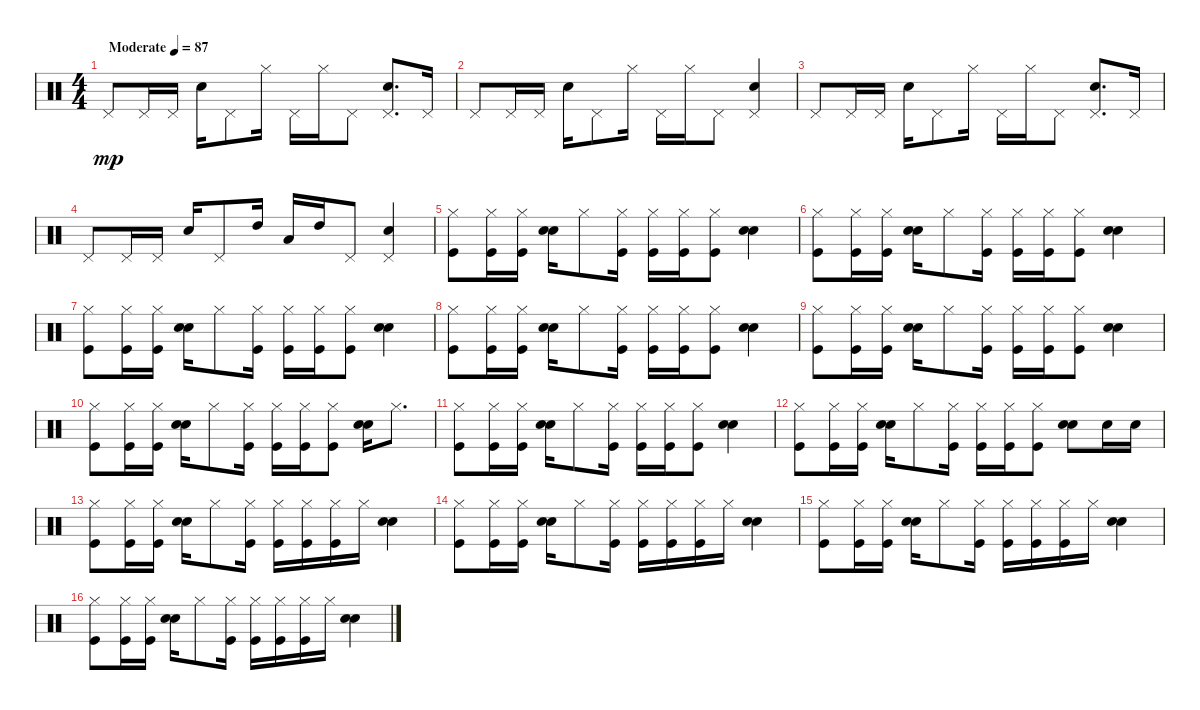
\track "" {instrument percussion}
\staff {score}
\articulation defaults
\ts (4 4)
\tempo (87 "Moderate")
\clef neutral
\ks c "Pedal Hi-Hat (hit)".8{dy mp} "Pedal Hi-Hat (hit)".16 "Pedal Hi-Hat (hit)".16 "Electric Snare (hit)".16 "Pedal Hi-Hat (hit)".8 "Hi-Hat (closed)".16 "Pedal Hi-Hat (hit)".16 "Hi-Hat (closed)".16 "Pedal Hi-Hat (hit)".8
("Pedal Hi-Hat (hit)" "Electric Snare (hit)").8{d} "Pedal Hi-Hat (hit)".16 |
"Pedal Hi-Hat (hit)".8 "Pedal Hi-Hat (hit)".16 "Pedal Hi-Hat (hit)".16 "Electric Snare (hit)".16 "Pedal Hi-Hat (hit)".8 "Hi-Hat (closed)".16 "Pedal Hi-Hat (hit)".16 "Hi-Hat (closed)".16 "Pedal Hi-Hat (hit)".8 ("Pedal Hi-Hat (hit)" "Electric Snare (hit)").4 |
"Pedal Hi-Hat (hit)".8 "Pedal Hi-Hat (hit)".16 "Pedal Hi-Hat (hit)".16 "Electric Snare (hit)".16 "Pedal Hi-Hat (hit)".8 "Hi-Hat (closed)".16 "Pedal Hi-Hat (hit)".16 "Hi-Hat (closed)".16 "Pedal Hi-Hat (hit)".8 ("Pedal Hi-Hat (hit)" "Electric Snare (hit)").8{d} "Pedal Hi-Hat (hit)".16 |
"Pedal Hi-Hat (hit)".8 "Pedal Hi-Hat (hit)".16 "Pedal Hi-Hat (hit)".16 "Electric Snare (hit)".16 "Pedal Hi-Hat (hit)".8 "High Tom (hit)".16 "Low Floor Tom (hit)".16 "High Tom (hit)".16 "Pedal Hi-Hat (hit)".8 ("Electric Snare (hit)" "Pedal Hi-Hat (hit)").4 |
("Kick (hit)" "Hi-Hat (closed)").8 ("Kick (hit)" "Hi-Hat (closed)").16 ("Kick (hit)" "Hi-Hat (closed)").16 ("Hand Clap (hit)" "Electric Snare (hit)").16 "Hi-Hat (closed)".8 ("Kick (hit)" "Hi-Hat (closed)").16 ("Kick (hit)" "Hi-Hat (closed)").16 ("Kick (hit)" "Hi-Hat (closed)").16 ("Kick (hit)" "Hi-Hat (closed)").8 ("Electric Snare (hit)" "Hand Clap (hit)").4 |
("Kick (hit)" "Hi-Hat (closed)").8 ("Kick (hit)" "Hi-Hat (closed)").16 ("Kick (hit)" "Hi-Hat (closed)").16 ("Hand Clap (hit)" "Electric Snare (hit)").16 "Hi-Hat (closed)".8 ("Kick (hit)" "Hi-Hat (closed)").16 ("Kick (hit)" "Hi-Hat (closed)").16 ("Kick (hit)" "Hi-Hat (closed)").16 ("Kick (hit)" "Hi-Hat (closed)").8 ("Electric Snare (hit)" "Hand Clap (hit)").4 |
("Kick (hit)" "Hi-Hat (closed)").8 ("Kick (hit)" "Hi-Hat (closed)").16 ("Kick (hit)" "Hi-Hat (closed)").16 ("Hand Clap (hit)" "Electric Snare (hit)").16 "Hi-Hat (closed)".8 ("Kick (hit)" "Hi-Hat (closed)").16 ("Kick (hit)" "Hi-Hat (closed)").16 ("Kick (hit)" "Hi-Hat (closed)").16 ("Kick (hit)" "Hi-Hat (closed)").8 ("Electric Snare (hit)" "Hand Clap (hit)").4 |
("Kick (hit)" "Hi-Hat (closed)").8 ("Kick (hit)" "Hi-Hat (closed)").16 ("Kick (hit)" "Hi-Hat (closed)").16 ("Hand Clap (hit)" "Electric Snare (hit)").16 "Hi-Hat (closed)".8 ("Kick (hit)" "Hi-Hat (closed)").16 ("Kick (hit)" "Hi-Hat (closed)").16 ("Kick (hit)" "Hi-Hat (closed)").16 ("Kick (hit)" "Hi-Hat (closed)").8 ("Electric Snare (hit)" "Hand Clap (hit)").4 |
("Kick (hit)" "Hi-Hat (closed)").8 ("Kick (hit)" "Hi-Hat (closed)").16 ("Kick (hit)" "Hi-Hat (closed)").16 ("Hand Clap (hit)" "Electric Snare (hit)").16 "Hi-Hat (closed)".8 ("Kick (hit)" "Hi-Hat (closed)").16 ("Kick (hit)" "Hi-Hat (closed)").16 ("Kick (hit)" "Hi-Hat (closed)").16 ("Kick (hit)" "Hi-Hat (closed)").8 ("Electric Snare (hit)" "Hand Clap (hit)").4 |
("Kick (hit)" "Hi-Hat (closed)").8 ("Kick (hit)" "Hi-Hat (closed)").16 ("Kick (hit)" "Hi-Hat (closed)").16 ("Hand Clap (hit)" "Electric Snare (hit)").16 "Hi-Hat (closed)".8 ("Kick (hit)" "Hi-Hat (closed)").16 ("Kick (hit)" "Hi-Hat (closed)").16 ("Kick (hit)" "Hi-Hat (closed)").16 ("Kick (hit)" "Hi-Hat (closed)").8 ("Hand Clap (hit)" "Electric Snare (hit)").16 "Hi-Hat (closed)".8{d} |
("Kick (hit)" "Hi-Hat (closed)").8 ("Kick (hit)" "Hi-Hat (closed)").16 ("Kick (hit)" "Hi-Hat (closed)").16 ("Hand Clap (hit)" "Electric Snare (hit)").16 "Hi-Hat (closed)".8 ("Kick (hit)" "Hi-Hat (closed)").16 ("Kick (hit)" "Hi-Hat (closed)").16 ("Kick (hit)" "Hi-Hat (closed)").16 ("Kick (hit)" "Hi-Hat (closed)").8 ("Electric Snare (hit)" "Hand Clap (hit)").4 |
("Kick (hit)" "Hi-Hat (closed)").8 ("Kick (hit)" "Hi-Hat (closed)").16 ("Kick (hit)" "Hi-Hat (closed)").16 ("Hand Clap (hit)" "Electric Snare (hit)").16 "Hi-Hat (closed)".8 ("Kick (hit)" "Hi-Hat (closed)").16 ("Kick (hit)" "Hi-Hat (closed)").16 ("Kick (hit)" "Hi-Hat (closed)").16 ("Kick (hit)" "Hi-Hat (closed)").8 ("Electric Snare (hit)" "Hand Clap (hit)").8 "Electric Snare (hit)".16 "Electric Snare (hit)".16 |
("Kick (hit)" "Hi-Hat (closed)").8 ("Kick (hit)" "Hi-Hat (closed)").16 ("Kick (hit)" "Hi-Hat (closed)").16 ("Hand Clap (hit)" "Electric Snare (hit)").16 "Hi-Hat (closed)".8 ("Kick (hit)" "Hi-Hat (closed)").16 ("Kick (hit)" "Hi-Hat (closed)").16 ("Kick (hit)" "Hi-Hat (closed)").16 ("Hi-Hat (closed)" "Kick (hit)").16 "Hi-Hat (closed)".16 ("Electric Snare (hit)" "Hand Clap (hit)").4 |
("Kick (hit)" "Hi-Hat (closed)").8 ("Kick (hit)" "Hi-Hat (closed)").16 ("Kick (hit)" "Hi-Hat (closed)").16 ("Hand Clap (hit)" "Electric Snare (hit)").16 "Hi-Hat (closed)".8 ("Kick (hit)" "Hi-Hat (closed)").16 ("Kick (hit)" "Hi-Hat (closed)").16 ("Kick (hit)" "Hi-Hat (closed)").16 ("Hi-Hat (closed)" "Kick (hit)").16 "Hi-Hat (closed)".16 ("Electric Snare (hit)" "Hand Clap (hit)").4 |
("Kick (hit)" "Hi-Hat (closed)").8 ("Kick (hit)" "Hi-Hat (closed)").16 ("Kick (hit)" "Hi-Hat (closed)").16 ("Hand Clap (hit)" "Electric Snare (hit)").16 "Hi-Hat (closed)".8 ("Kick (hit)" "Hi-Hat (closed)").16 ("Kick (hit)" "Hi-Hat (closed)").16 ("Kick (hit)" "Hi-Hat (closed)").16 ("Hi-Hat (closed)" "Kick (hit)").16 "Hi-Hat (closed)".16 ("Electric Snare (hit)" "Hand Clap (hit)").4 |
("Kick (hit)" "Hi-Hat (closed)").8 ("Kick (hit)" "Hi-Hat (closed)").16 ("Kick (hit)" "Hi-Hat (closed)").16 ("Hand Clap (hit)" "Electric Snare (hit)").16 "Hi-Hat (closed)".8 ("Kick (hit)" "Hi-Hat (closed)").16 ("Kick (hit)" "Hi-Hat (closed)").16 ("Kick (hit)" "Hi-Hat (closed)").16 ("Hi-Hat (closed)" "Kick (hit)").16 "Hi-Hat (closed)".16 ("Electric Snare (hit)" "Hand Clap (hit)").4
